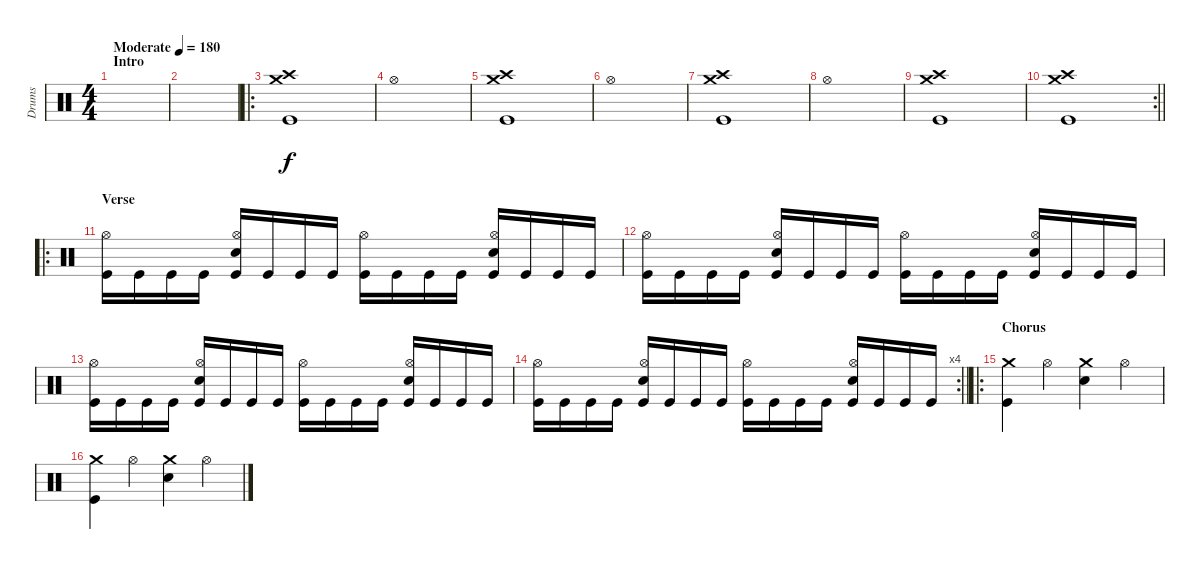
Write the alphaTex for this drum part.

\track ("Drums" "Drums") {instrument percussion}
\staff {score}
\articulation defaults
\ts (4 4)
\section ("" "Intro")
\tempo (180 "Moderate")
\clef neutral
\ks c
|
|
\ro
("Crash medium (hit)" "Crash high (hit)" "Kick (hit)").1 |
"Hi-Hat (open)".1 |
("Crash medium (hit)" "Crash high (hit)" "Kick (hit)").1 |
"Hi-Hat (open)".1 |
("Crash medium (hit)" "Crash high (hit)" "Kick (hit)").1 |
"Hi-Hat (open)".1 |
("Crash medium (hit)" "Crash high (hit)" "Kick (hit)").1 |
\rc 2
\barLineRight lightlight
("Crash medium (hit)" "Crash high (hit)" "Kick (hit)").1 |
\ro
\section ("" "Verse")
("Hi-Hat (open)" "Kick (hit)").16 "Kick (hit)".16 "Kick (hit)".16 "Kick (hit)".16 ("Hi-Hat (open)" "Snare (hit) 2" "Kick (hit)").16 "Kick (hit)".16 "Kick (hit)".16 "Kick (hit)".16 ("Hi-Hat (open)" "Kick (hit)").16 "Kick (hit)".16 "Kick (hit)".16 "Kick (hit)".16 ("Hi-Hat (open)" "Snare (hit) 2" "Kick (hit)").16 "Kick (hit)".16 "Kick (hit)".16 "Kick (hit)".16 |
("Hi-Hat (open)" "Kick (hit)").16 "Kick (hit)".16 "Kick (hit)".16 "Kick (hit)".16 ("Hi-Hat (open)" "Snare (hit) 2" "Kick (hit)").16 "Kick (hit)".16 "Kick (hit)".16 "Kick (hit)".16 ("Hi-Hat (open)" "Kick (hit)").16 "Kick (hit)".16 "Kick (hit)".16 "Kick (hit)".16 ("Hi-Hat (open)" "Snare (hit) 2" "Kick (hit)").16 "Kick (hit)".16 "Kick (hit)".16 "Kick (hit)".16 |
("Hi-Hat (open)" "Kick (hit)").16 "Kick (hit)".16 "Kick (hit)".16 "Kick (hit)".16 ("Hi-Hat (open)" "Snare (hit) 2" "Kick (hit)").16 "Kick (hit)".16 "Kick (hit)".16 "Kick (hit)".16 ("Hi-Hat (open)" "Kick (hit)").16 "Kick (hit)".16 "Kick (hit)".16 "Kick (hit)".16 ("Hi-Hat (open)" "Snare (hit) 2" "Kick (hit)").16 "Kick (hit)".16 "Kick (hit)".16 "Kick (hit)".16 |
\rc 4
\barLineRight lightlight
("Hi-Hat (open)" "Kick (hit)").16 "Kick (hit)".16 "Kick (hit)".16 "Kick (hit)".16 ("Hi-Hat (open)" "Snare (hit) 2" "Kick (hit)").16 "Kick (hit)".16 "Kick (hit)".16 "Kick (hit)".16 ("Hi-Hat (open)" "Kick (hit)").16 "Kick (hit)".16 "Kick (hit)".16 "Kick (hit)".16 ("Hi-Hat (open)" "Snare (hit) 2" "Kick (hit)").16 "Kick (hit)".16 "Kick (hit)".16 "Kick (hit)".16 |
\ro
\section ("" "Chorus")
("Crash medium (hit)" "Kick (hit)").4 "Hi-Hat (open)".4 ("Crash medium (hit)" "Snare (hit) 2").4 "Hi-Hat (open)".4 |
("Crash medium (hit)" "Kick (hit)").4 "Hi-Hat (open)".4 ("Crash medium (hit)" "Snare (hit) 2").4 "Hi-Hat (open)".4
